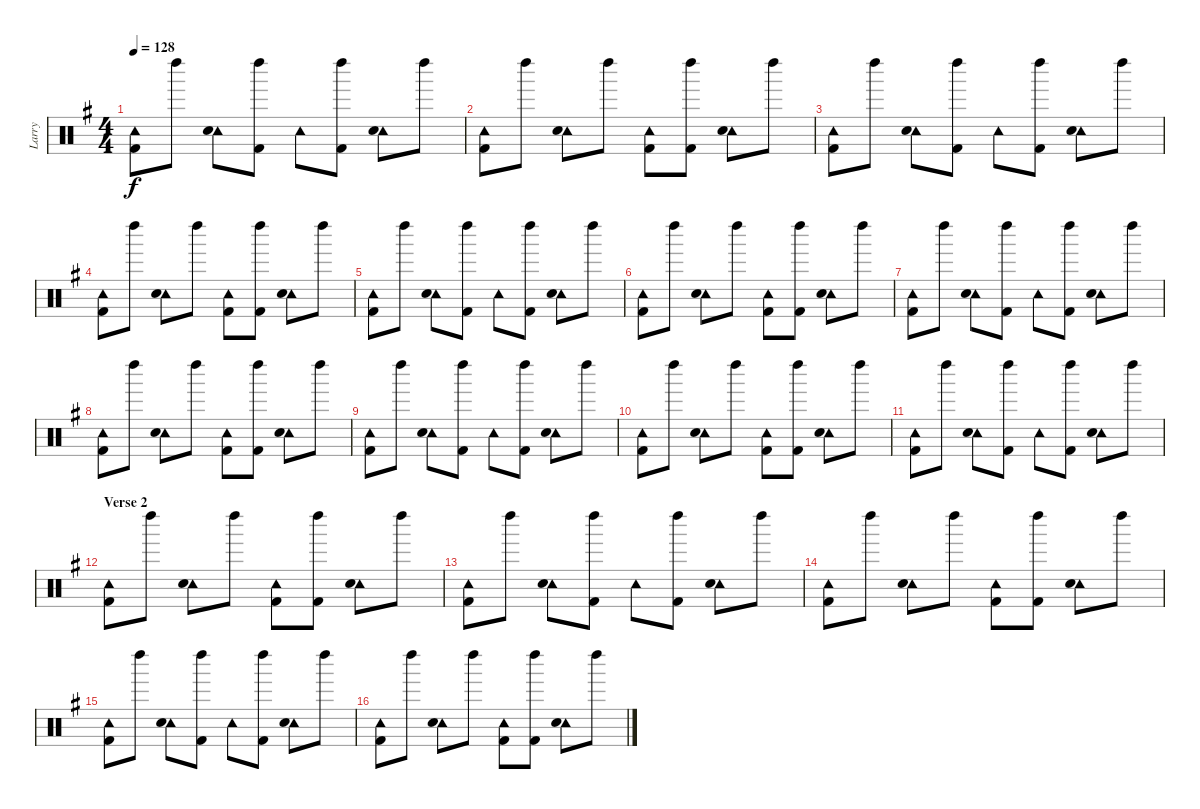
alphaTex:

\track ("Larry" "Larry") {instrument percussion}
\staff {score}
\articulation defaults
\ts (4 4)
\tempo 128
\clef neutral
\ks g
("Tambourine (hit)" "Kick (hit) 2").8{dy f} "Left Maraca (hit)".8 ("Tambourine (hit)" "Snare (hit) 2").8 ("Left Maraca (hit)" "Kick (hit) 2").8 "Tambourine (hit)".8 ("Left Maraca (hit)" "Kick (hit) 2").8 ("Tambourine (hit)" "Snare (hit) 2").8 "Left Maraca (hit)".8 |
("Tambourine (hit)" "Kick (hit) 2").8 "Left Maraca (hit)".8 ("Tambourine (hit)" "Snare (hit) 2").8 "Left Maraca (hit)".8 ("Tambourine (hit)" "Kick (hit) 2").8 ("Left Maraca (hit)" "Kick (hit) 2").8 ("Tambourine (hit)" "Snare (hit) 2").8 "Left Maraca (hit)".8 |
("Tambourine (hit)" "Kick (hit) 2").8 "Left Maraca (hit)".8 ("Tambourine (hit)" "Snare (hit) 2").8 ("Left Maraca (hit)" "Kick (hit) 2").8 "Tambourine (hit)".8 ("Left Maraca (hit)" "Kick (hit) 2").8 ("Tambourine (hit)" "Snare (hit) 2").8 "Left Maraca (hit)".8 |
("Tambourine (hit)" "Kick (hit) 2").8 "Left Maraca (hit)".8 ("Tambourine (hit)" "Snare (hit) 2").8 "Left Maraca (hit)".8 ("Tambourine (hit)" "Kick (hit) 2").8 ("Left Maraca (hit)" "Kick (hit) 2").8 ("Tambourine (hit)" "Snare (hit) 2").8 "Left Maraca (hit)".8 |
("Tambourine (hit)" "Kick (hit) 2").8 "Left Maraca (hit)".8 ("Tambourine (hit)" "Snare (hit) 2").8 ("Left Maraca (hit)" "Kick (hit) 2").8 "Tambourine (hit)".8 ("Left Maraca (hit)" "Kick (hit) 2").8 ("Tambourine (hit)" "Snare (hit) 2").8 "Left Maraca (hit)".8 |
("Tambourine (hit)" "Kick (hit) 2").8 "Left Maraca (hit)".8 ("Tambourine (hit)" "Snare (hit) 2").8 "Left Maraca (hit)".8 ("Tambourine (hit)" "Kick (hit) 2").8 ("Left Maraca (hit)" "Kick (hit) 2").8 ("Tambourine (hit)" "Snare (hit) 2").8 "Left Maraca (hit)".8 |
("Tambourine (hit)" "Kick (hit) 2").8 "Left Maraca (hit)".8 ("Tambourine (hit)" "Snare (hit) 2").8 ("Left Maraca (hit)" "Kick (hit) 2").8 "Tambourine (hit)".8 ("Left Maraca (hit)" "Kick (hit) 2").8 ("Tambourine (hit)" "Snare (hit) 2").8 "Left Maraca (hit)".8 |
("Tambourine (hit)" "Kick (hit) 2").8 "Left Maraca (hit)".8 ("Tambourine (hit)" "Snare (hit) 2").8 "Left Maraca (hit)".8 ("Tambourine (hit)" "Kick (hit) 2").8 ("Left Maraca (hit)" "Kick (hit) 2").8 ("Tambourine (hit)" "Snare (hit) 2").8 "Left Maraca (hit)".8 |
("Tambourine (hit)" "Kick (hit) 2").8 "Left Maraca (hit)".8 ("Tambourine (hit)" "Snare (hit) 2").8 ("Left Maraca (hit)" "Kick (hit) 2").8 "Tambourine (hit)".8 ("Left Maraca (hit)" "Kick (hit) 2").8 ("Tambourine (hit)" "Snare (hit) 2").8 "Left Maraca (hit)".8 |
("Tambourine (hit)" "Kick (hit) 2").8 "Left Maraca (hit)".8 ("Tambourine (hit)" "Snare (hit) 2").8 "Left Maraca (hit)".8 ("Tambourine (hit)" "Kick (hit) 2").8 ("Left Maraca (hit)" "Kick (hit) 2").8 ("Tambourine (hit)" "Snare (hit) 2").8 "Left Maraca (hit)".8 |
("Tambourine (hit)" "Kick (hit) 2").8 "Left Maraca (hit)".8 ("Tambourine (hit)" "Snare (hit) 2").8 ("Left Maraca (hit)" "Kick (hit) 2").8 "Tambourine (hit)".8 ("Left Maraca (hit)" "Kick (hit) 2").8 ("Tambourine (hit)" "Snare (hit) 2").8 "Left Maraca (hit)".8 |
\section ("" "Verse 2")
("Tambourine (hit)" "Kick (hit) 2").8 "Left Maraca (hit)".8 ("Tambourine (hit)" "Snare (hit) 2").8 "Left Maraca (hit)".8 ("Tambourine (hit)" "Kick (hit) 2").8 ("Left Maraca (hit)" "Kick (hit) 2").8 ("Tambourine (hit)" "Snare (hit) 2").8 "Left Maraca (hit)".8 |
("Tambourine (hit)" "Kick (hit) 2").8 "Left Maraca (hit)".8 ("Tambourine (hit)" "Snare (hit) 2").8 ("Left Maraca (hit)" "Kick (hit) 2").8 "Tambourine (hit)".8 ("Left Maraca (hit)" "Kick (hit) 2").8 ("Tambourine (hit)" "Snare (hit) 2").8 "Left Maraca (hit)".8 |
("Tambourine (hit)" "Kick (hit) 2").8 "Left Maraca (hit)".8 ("Tambourine (hit)" "Snare (hit) 2").8 "Left Maraca (hit)".8 ("Tambourine (hit)" "Kick (hit) 2").8 ("Left Maraca (hit)" "Kick (hit) 2").8 ("Tambourine (hit)" "Snare (hit) 2").8 "Left Maraca (hit)".8 |
("Tambourine (hit)" "Kick (hit) 2").8 "Left Maraca (hit)".8 ("Tambourine (hit)" "Snare (hit) 2").8 ("Left Maraca (hit)" "Kick (hit) 2").8 "Tambourine (hit)".8 ("Left Maraca (hit)" "Kick (hit) 2").8 ("Tambourine (hit)" "Snare (hit) 2").8 "Left Maraca (hit)".8 |
("Tambourine (hit)" "Kick (hit) 2").8 "Left Maraca (hit)".8 ("Tambourine (hit)" "Snare (hit) 2").8 "Left Maraca (hit)".8 ("Tambourine (hit)" "Kick (hit) 2").8 ("Left Maraca (hit)" "Kick (hit) 2").8 ("Tambourine (hit)" "Snare (hit) 2").8 "Left Maraca (hit)".8
